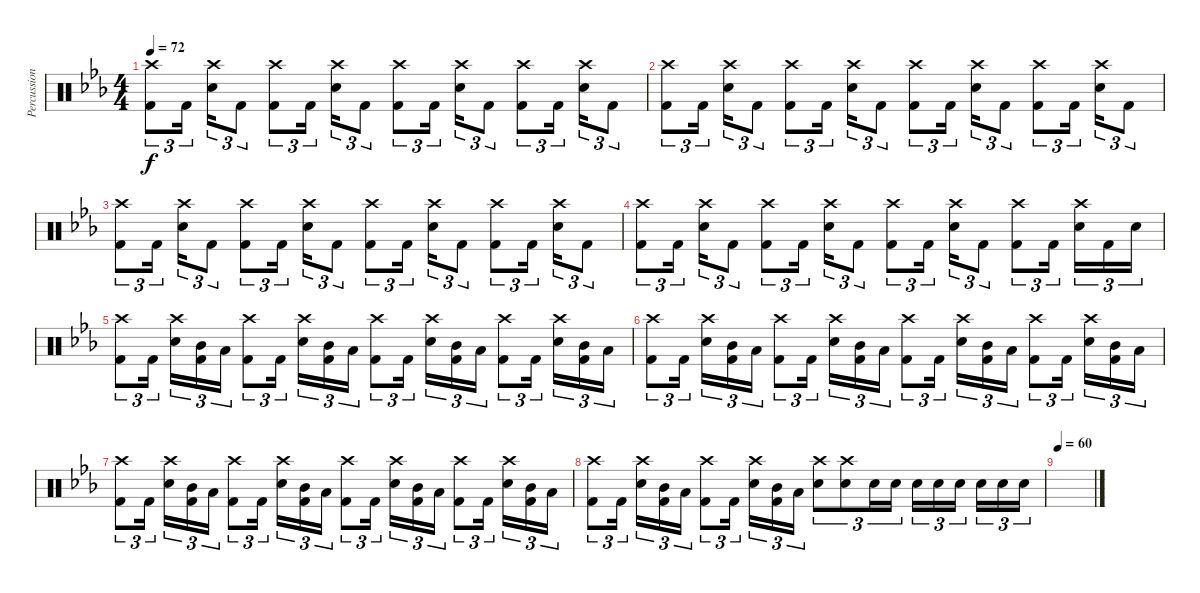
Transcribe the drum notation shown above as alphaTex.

\track ("Percussion" "Percussion") {instrument percussion}
\staff {score}
\articulation defaults
\ts (4 4)
\tempo 72
\clef neutral
\ks eb
("Crash high (hit)" "Kick (hit) 2").8{tu (3 2) dy f} "Kick (hit) 2".16{tu (3 2) beam splitsecondary} ("Crash high (hit)" "Electric Snare (hit)").16{tu (3 2)} "Kick (hit) 2".8{tu (3 2)} ("Crash high (hit)" "Kick (hit) 2").8{tu (3 2)} "Kick (hit) 2".16{tu (3 2) beam splitsecondary} ("Crash high (hit)" "Electric Snare (hit)").16{tu (3 2)} "Kick (hit) 2".8{tu (3 2)} ("Crash high (hit)" "Kick (hit) 2").8{tu (3 2)} "Kick (hit) 2".16{tu (3 2) beam splitsecondary} ("Crash high (hit)" "Electric Snare (hit)").16{tu (3 2)} "Kick (hit) 2".8{tu (3 2)} ("Crash high (hit)" "Kick (hit) 2").8{tu (3 2)} "Kick (hit) 2".16{tu (3 2) beam splitsecondary} ("Crash high (hit)" "Electric Snare (hit)").16{tu (3 2)} "Kick (hit) 2".8{tu (3 2)} |
("Crash high (hit)" "Kick (hit) 2").8{tu (3 2)} "Kick (hit) 2".16{tu (3 2) beam splitsecondary} ("Crash high (hit)" "Electric Snare (hit)").16{tu (3 2)} "Kick (hit) 2".8{tu (3 2)} ("Crash high (hit)" "Kick (hit) 2").8{tu (3 2)} "Kick (hit) 2".16{tu (3 2) beam splitsecondary} ("Crash high (hit)" "Electric Snare (hit)").16{tu (3 2)} "Kick (hit) 2".8{tu (3 2)} ("Crash high (hit)" "Kick (hit) 2").8{tu (3 2)} "Kick (hit) 2".16{tu (3 2) beam splitsecondary} ("Crash high (hit)" "Electric Snare (hit)").16{tu (3 2)} "Kick (hit) 2".8{tu (3 2)} ("Crash high (hit)" "Kick (hit) 2").8{tu (3 2)} "Kick (hit) 2".16{tu (3 2) beam splitsecondary} ("Crash high (hit)" "Electric Snare (hit)").16{tu (3 2)} "Kick (hit) 2".8{tu (3 2)} |
("Crash high (hit)" "Kick (hit) 2").8{tu (3 2)} "Kick (hit) 2".16{tu (3 2) beam splitsecondary} ("Crash high (hit)" "Electric Snare (hit)").16{tu (3 2)} "Kick (hit) 2".8{tu (3 2)} ("Crash high (hit)" "Kick (hit) 2").8{tu (3 2)} "Kick (hit) 2".16{tu (3 2) beam splitsecondary} ("Crash high (hit)" "Electric Snare (hit)").16{tu (3 2)} "Kick (hit) 2".8{tu (3 2)} ("Crash high (hit)" "Kick (hit) 2").8{tu (3 2)} "Kick (hit) 2".16{tu (3 2) beam splitsecondary} ("Crash high (hit)" "Electric Snare (hit)").16{tu (3 2)} "Kick (hit) 2".8{tu (3 2)} ("Crash high (hit)" "Kick (hit) 2").8{tu (3 2)} "Kick (hit) 2".16{tu (3 2) beam splitsecondary} ("Crash high (hit)" "Electric Snare (hit)").16{tu (3 2)} "Kick (hit) 2".8{tu (3 2)} |
("Crash high (hit)" "Kick (hit) 2").8{tu (3 2)} "Kick (hit) 2".16{tu (3 2) beam splitsecondary} ("Crash high (hit)" "Electric Snare (hit)").16{tu (3 2)} "Kick (hit) 2".8{tu (3 2)} ("Crash high (hit)" "Kick (hit) 2").8{tu (3 2)} "Kick (hit) 2".16{tu (3 2) beam splitsecondary} ("Crash high (hit)" "Electric Snare (hit)").16{tu (3 2)} "Kick (hit) 2".8{tu (3 2)} ("Crash high (hit)" "Kick (hit) 2").8{tu (3 2)} "Kick (hit) 2".16{tu (3 2) beam splitsecondary} ("Crash high (hit)" "Electric Snare (hit)").16{tu (3 2)} "Kick (hit) 2".8{tu (3 2)} ("Crash high (hit)" "Kick (hit) 2").8{tu (3 2)} "Kick (hit) 2".16{tu (3 2) beam splitsecondary} ("Crash high (hit)" "Electric Snare (hit)").16{tu (3 2)} "Kick (hit) 2".16{tu (3 2)} "Electric Snare (hit)".16{tu (3 2)} |
("Crash high (hit)" "Kick (hit) 2").8{tu (3 2)} "Kick (hit) 2".16{tu (3 2) beam splitsecondary} ("Crash high (hit)" "Electric Snare (hit)").16{tu (3 2)} ("Mid Tom (hit)" "Kick (hit) 2").16{tu (3 2)} "Low Tom (hit)".16{tu (3 2)} ("Crash high (hit)" "Kick (hit) 2").8{tu (3 2)} "Kick (hit) 2".16{tu (3 2) beam splitsecondary} ("Crash high (hit)" "Electric Snare (hit)").16{tu (3 2)} ("Mid Tom (hit)" "Kick (hit) 2").16{tu (3 2)} "Low Tom (hit)".16{tu (3 2)} ("Crash high (hit)" "Kick (hit) 2").8{tu (3 2)} "Kick (hit) 2".16{tu (3 2) beam splitsecondary} ("Crash high (hit)" "Electric Snare (hit)").16{tu (3 2)} ("Mid Tom (hit)" "Kick (hit) 2").16{tu (3 2)} "Low Tom (hit)".16{tu (3 2)} ("Crash high (hit)" "Kick (hit) 2").8{tu (3 2)} "Kick (hit) 2".16{tu (3 2) beam splitsecondary} ("Crash high (hit)" "Electric Snare (hit)").16{tu (3 2)} ("Mid Tom (hit)" "Kick (hit) 2").16{tu (3 2)} "Low Tom (hit)".16{tu (3 2)} |
("Crash high (hit)" "Kick (hit) 2").8{tu (3 2)} "Kick (hit) 2".16{tu (3 2) beam splitsecondary} ("Crash high (hit)" "Electric Snare (hit)").16{tu (3 2)} ("Mid Tom (hit)" "Kick (hit) 2").16{tu (3 2)} "Low Tom (hit)".16{tu (3 2)} ("Crash high (hit)" "Kick (hit) 2").8{tu (3 2)} "Kick (hit) 2".16{tu (3 2) beam splitsecondary} ("Crash high (hit)" "Electric Snare (hit)").16{tu (3 2)} ("Mid Tom (hit)" "Kick (hit) 2").16{tu (3 2)} "Low Tom (hit)".16{tu (3 2)} ("Crash high (hit)" "Kick (hit) 2").8{tu (3 2)} "Kick (hit) 2".16{tu (3 2) beam splitsecondary} ("Crash high (hit)" "Electric Snare (hit)").16{tu (3 2)} ("Mid Tom (hit)" "Kick (hit) 2").16{tu (3 2)} "Low Tom (hit)".16{tu (3 2)} ("Crash high (hit)" "Kick (hit) 2").8{tu (3 2)} "Kick (hit) 2".16{tu (3 2) beam splitsecondary} ("Crash high (hit)" "Electric Snare (hit)").16{tu (3 2)} ("Mid Tom (hit)" "Kick (hit) 2").16{tu (3 2)} "Low Tom (hit)".16{tu (3 2)} |
("Crash high (hit)" "Kick (hit) 2").8{tu (3 2)} "Kick (hit) 2".16{tu (3 2) beam splitsecondary} ("Crash high (hit)" "Electric Snare (hit)").16{tu (3 2)} ("Mid Tom (hit)" "Kick (hit) 2").16{tu (3 2)} "Low Tom (hit)".16{tu (3 2)} ("Crash high (hit)" "Kick (hit) 2").8{tu (3 2)} "Kick (hit) 2".16{tu (3 2) beam splitsecondary} ("Crash high (hit)" "Electric Snare (hit)").16{tu (3 2)} ("Mid Tom (hit)" "Kick (hit) 2").16{tu (3 2)} "Low Tom (hit)".16{tu (3 2)} ("Crash high (hit)" "Kick (hit) 2").8{tu (3 2)} "Kick (hit) 2".16{tu (3 2) beam splitsecondary} ("Crash high (hit)" "Electric Snare (hit)").16{tu (3 2)} ("Mid Tom (hit)" "Kick (hit) 2").16{tu (3 2)} "Low Tom (hit)".16{tu (3 2)} ("Crash high (hit)" "Kick (hit) 2").8{tu (3 2)} "Kick (hit) 2".16{tu (3 2) beam splitsecondary} ("Crash high (hit)" "Electric Snare (hit)").16{tu (3 2)} ("Mid Tom (hit)" "Kick (hit) 2").16{tu (3 2)} "Low Tom (hit)".16{tu (3 2)} |
("Crash high (hit)" "Kick (hit) 2").8{tu (3 2)} "Kick (hit) 2".16{tu (3 2) beam splitsecondary} ("Crash high (hit)" "Electric Snare (hit)").16{tu (3 2)} ("Mid Tom (hit)" "Kick (hit) 2").16{tu (3 2)} "Low Tom (hit)".16{tu (3 2)} ("Crash high (hit)" "Kick (hit) 2").8{tu (3 2)} "Kick (hit) 2".16{tu (3 2) beam splitsecondary} ("Crash high (hit)" "Electric Snare (hit)").16{tu (3 2)} ("Mid Tom (hit)" "Kick (hit) 2").16{tu (3 2)} "Low Tom (hit)".16{tu (3 2)} ("Crash high (hit)" "Electric Snare (hit)").8{tu (3 2)} ("Crash high (hit)" "Electric Snare (hit)").8{tu (3 2)} "Electric Snare (hit)".16{tu (3 2)} "Electric Snare (hit)".16{tu (3 2)} "Electric Snare (hit)".16{tu (3 2)} "Electric Snare (hit)".16{tu (3 2)} "Electric Snare (hit)".16{tu (3 2) beam splitsecondary} "Electric Snare (hit)".16{tu (3 2)} "Electric Snare (hit)".16{tu (3 2)} "Electric Snare (hit)".16{tu (3 2)} |
\tempo 60
